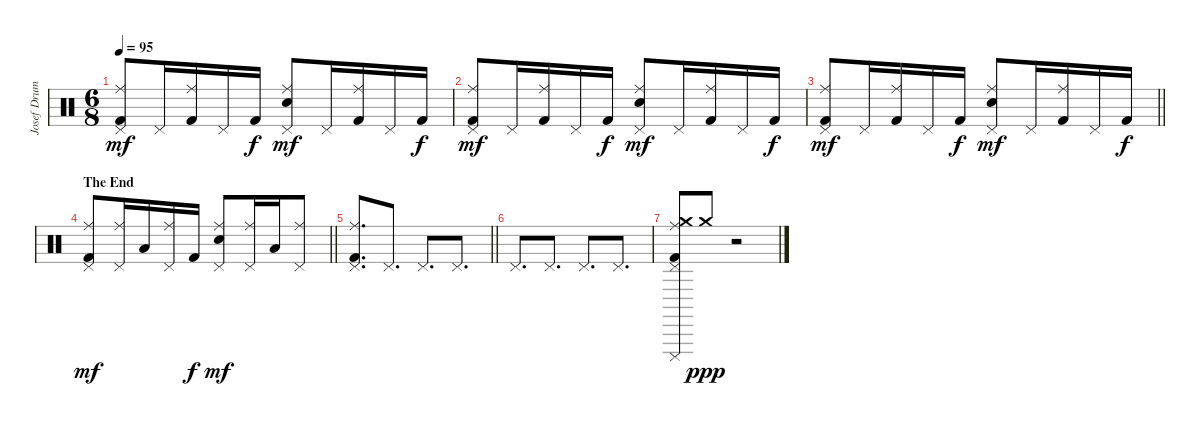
\track ("Josef Drums" "Josef Drum") {instrument percussion}
\staff {score}
\articulation defaults
\ts (6 8)
\tempo 95
\clef neutral
\ks c
("Ride (middle)" "Kick (hit) 2" "Pedal Hi-Hat (hit)").8{dy mf} "Pedal Hi-Hat (hit)".16 ("Ride (middle)" "Kick (hit) 2").16 "Pedal Hi-Hat (hit)".16 "Kick (hit) 2".16{dy f} ("Ride (middle)" "Electric Snare (hit)" "Pedal Hi-Hat (hit)").8{dy mf} "Pedal Hi-Hat (hit)".16 ("Ride (middle)" "Kick (hit) 2").16 "Pedal Hi-Hat (hit)".16 "Kick (hit) 2".16{dy f} |
("Ride (middle)" "Kick (hit) 2" "Pedal Hi-Hat (hit)").8{dy mf} "Pedal Hi-Hat (hit)".16 ("Ride (middle)" "Kick (hit) 2").16 "Pedal Hi-Hat (hit)".16 "Kick (hit) 2".16{dy f} ("Ride (middle)" "Electric Snare (hit)" "Pedal Hi-Hat (hit)").8{dy mf} "Pedal Hi-Hat (hit)".16 ("Ride (middle)" "Kick (hit) 2").16 "Pedal Hi-Hat (hit)".16 "Kick (hit) 2".16{dy f} |
\barLineRight lightlight
("Ride (middle)" "Kick (hit) 2" "Pedal Hi-Hat (hit)").8{dy mf} "Pedal Hi-Hat (hit)".16 ("Ride (middle)" "Kick (hit) 2").16 "Pedal Hi-Hat (hit)".16 "Kick (hit) 2".16{dy f} ("Ride (middle)" "Electric Snare (hit)" "Pedal Hi-Hat (hit)").8{dy mf} "Pedal Hi-Hat (hit)".16 ("Ride (middle)" "Kick (hit) 2").16 "Pedal Hi-Hat (hit)".16 "Kick (hit) 2".16{dy f} |
\section ("" "The End")
\barLineRight lightlight
("Ride (middle)" "Kick (hit) 2" "Pedal Hi-Hat (hit)").8{dy mf} ("Ride (middle)" "Pedal Hi-Hat (hit)").16 "Low Tom (hit)".16 ("Ride (middle)" "Pedal Hi-Hat (hit)").16 "Kick (hit) 2".16{dy f} ("Ride (middle)" "Electric Snare (hit)" "Pedal Hi-Hat (hit)").8{dy mf} ("Ride (middle)" "Pedal Hi-Hat (hit)").16 "Low Tom (hit)".16 ("Ride (middle)" "Pedal Hi-Hat (hit)").8 |
\barLineRight lightlight
("Ride (middle)" "Kick (hit) 2" "Pedal Hi-Hat (hit)").8{d} "Pedal Hi-Hat (hit)".8{d} "Pedal Hi-Hat (hit)".8{d} "Pedal Hi-Hat (hit)".8{d} |
"Pedal Hi-Hat (hit)".8{d} "Pedal Hi-Hat (hit)".8{d} "Pedal Hi-Hat (hit)".8{d} "Pedal Hi-Hat (hit)".8{d} |
("Crash medium (hit)" "Ride (middle)" "Cuica (mute)" "Kick (hit) 2" "Pedal Hi-Hat (hit)").8 "Crash medium (hit)".8{dy ppp} r.2
